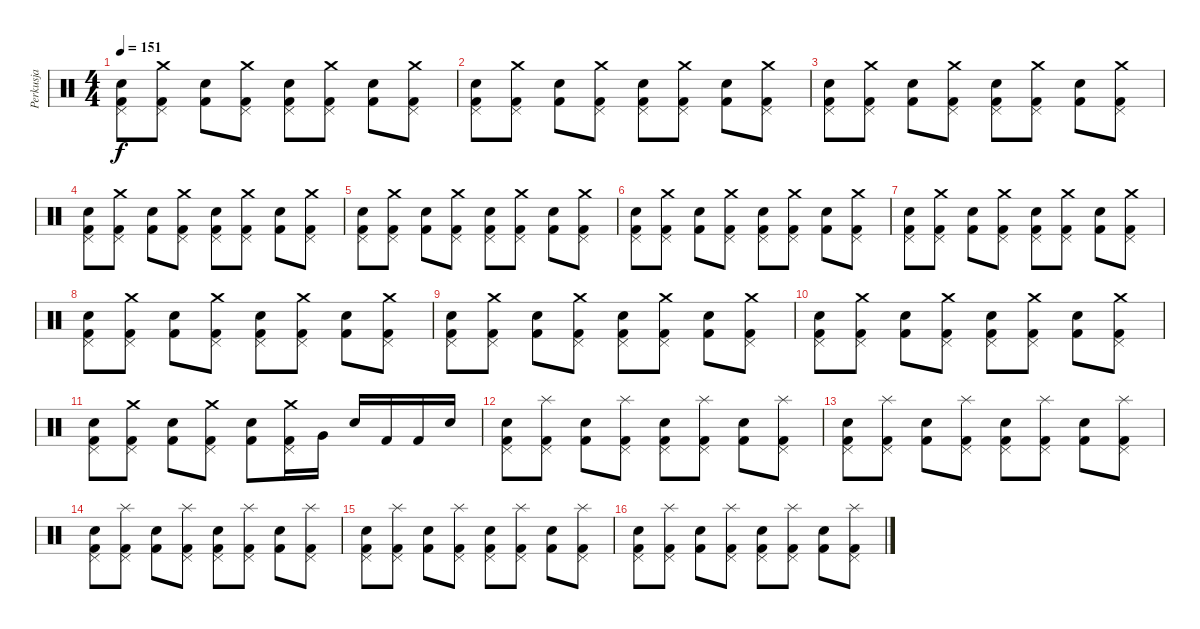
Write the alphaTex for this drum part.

\track ("Perkusja" "Perkusja") {instrument percussion}
\staff {score}
\articulation defaults
\ts (4 4)
\tempo 151
\clef neutral
\ks c
("Pedal Hi-Hat (hit)" "Kick (hit) 2" "Snare (hit) 2").8{dy f} ("Crash medium (hit)" "Kick (hit) 2" "Pedal Hi-Hat (hit)").8 ("Kick (hit) 2" "Snare (hit) 2").8 ("Crash medium (hit)" "Kick (hit) 2" "Pedal Hi-Hat (hit)").8 ("Pedal Hi-Hat (hit)" "Kick (hit) 2" "Snare (hit) 2").8 ("Crash medium (hit)" "Kick (hit) 2" "Pedal Hi-Hat (hit)").8 ("Kick (hit) 2" "Snare (hit) 2").8 ("Crash medium (hit)" "Kick (hit) 2" "Pedal Hi-Hat (hit)").8 |
("Pedal Hi-Hat (hit)" "Kick (hit) 2" "Snare (hit) 2").8 ("Crash medium (hit)" "Kick (hit) 2" "Pedal Hi-Hat (hit)").8 ("Kick (hit) 2" "Snare (hit) 2").8 ("Crash medium (hit)" "Kick (hit) 2" "Pedal Hi-Hat (hit)").8 ("Pedal Hi-Hat (hit)" "Kick (hit) 2" "Snare (hit) 2").8 ("Crash medium (hit)" "Kick (hit) 2" "Pedal Hi-Hat (hit)").8 ("Kick (hit) 2" "Snare (hit) 2").8 ("Crash medium (hit)" "Kick (hit) 2" "Pedal Hi-Hat (hit)").8 |
("Pedal Hi-Hat (hit)" "Kick (hit) 2" "Snare (hit) 2").8 ("Crash medium (hit)" "Kick (hit) 2" "Pedal Hi-Hat (hit)").8 ("Kick (hit) 2" "Snare (hit) 2").8 ("Crash medium (hit)" "Kick (hit) 2" "Pedal Hi-Hat (hit)").8 ("Pedal Hi-Hat (hit)" "Kick (hit) 2" "Snare (hit) 2").8 ("Crash medium (hit)" "Kick (hit) 2" "Pedal Hi-Hat (hit)").8 ("Kick (hit) 2" "Snare (hit) 2").8 ("Crash medium (hit)" "Kick (hit) 2" "Pedal Hi-Hat (hit)").8 |
("Pedal Hi-Hat (hit)" "Kick (hit) 2" "Snare (hit) 2").8 ("Crash medium (hit)" "Kick (hit) 2" "Pedal Hi-Hat (hit)").8 ("Kick (hit) 2" "Snare (hit) 2").8 ("Crash medium (hit)" "Kick (hit) 2" "Pedal Hi-Hat (hit)").8 ("Pedal Hi-Hat (hit)" "Kick (hit) 2" "Snare (hit) 2").8 ("Crash medium (hit)" "Kick (hit) 2" "Pedal Hi-Hat (hit)").8 ("Kick (hit) 2" "Snare (hit) 2").8 ("Crash medium (hit)" "Kick (hit) 2" "Pedal Hi-Hat (hit)").8 |
("Pedal Hi-Hat (hit)" "Kick (hit) 2" "Snare (hit) 2").8 ("Crash medium (hit)" "Kick (hit) 2" "Pedal Hi-Hat (hit)").8 ("Kick (hit) 2" "Snare (hit) 2").8 ("Crash medium (hit)" "Kick (hit) 2" "Pedal Hi-Hat (hit)").8 ("Pedal Hi-Hat (hit)" "Kick (hit) 2" "Snare (hit) 2").8 ("Crash medium (hit)" "Kick (hit) 2" "Pedal Hi-Hat (hit)").8 ("Kick (hit) 2" "Snare (hit) 2").8 ("Crash medium (hit)" "Kick (hit) 2" "Pedal Hi-Hat (hit)").8 |
("Pedal Hi-Hat (hit)" "Kick (hit) 2" "Snare (hit) 2").8 ("Crash medium (hit)" "Kick (hit) 2" "Pedal Hi-Hat (hit)").8 ("Kick (hit) 2" "Snare (hit) 2").8 ("Crash medium (hit)" "Kick (hit) 2" "Pedal Hi-Hat (hit)").8 ("Pedal Hi-Hat (hit)" "Kick (hit) 2" "Snare (hit) 2").8 ("Crash medium (hit)" "Kick (hit) 2" "Pedal Hi-Hat (hit)").8 ("Kick (hit) 2" "Snare (hit) 2").8 ("Crash medium (hit)" "Kick (hit) 2" "Pedal Hi-Hat (hit)").8 |
("Pedal Hi-Hat (hit)" "Kick (hit) 2" "Snare (hit) 2").8 ("Crash medium (hit)" "Kick (hit) 2" "Pedal Hi-Hat (hit)").8 ("Kick (hit) 2" "Snare (hit) 2").8 ("Crash medium (hit)" "Kick (hit) 2" "Pedal Hi-Hat (hit)").8 ("Pedal Hi-Hat (hit)" "Kick (hit) 2" "Snare (hit) 2").8 ("Crash medium (hit)" "Kick (hit) 2" "Pedal Hi-Hat (hit)").8 ("Kick (hit) 2" "Snare (hit) 2").8 ("Crash medium (hit)" "Kick (hit) 2" "Pedal Hi-Hat (hit)").8 |
("Pedal Hi-Hat (hit)" "Kick (hit) 2" "Snare (hit) 2").8 ("Crash medium (hit)" "Kick (hit) 2" "Pedal Hi-Hat (hit)").8 ("Kick (hit) 2" "Snare (hit) 2").8 ("Crash medium (hit)" "Kick (hit) 2" "Pedal Hi-Hat (hit)").8 ("Pedal Hi-Hat (hit)" "Kick (hit) 2" "Snare (hit) 2").8 ("Crash medium (hit)" "Kick (hit) 2" "Pedal Hi-Hat (hit)").8 ("Kick (hit) 2" "Snare (hit) 2").8 ("Crash medium (hit)" "Kick (hit) 2" "Pedal Hi-Hat (hit)").8 |
("Pedal Hi-Hat (hit)" "Kick (hit) 2" "Snare (hit) 2").8 ("Crash medium (hit)" "Kick (hit) 2" "Pedal Hi-Hat (hit)").8 ("Kick (hit) 2" "Snare (hit) 2").8 ("Crash medium (hit)" "Kick (hit) 2" "Pedal Hi-Hat (hit)").8 ("Pedal Hi-Hat (hit)" "Kick (hit) 2" "Snare (hit) 2").8 ("Crash medium (hit)" "Kick (hit) 2" "Pedal Hi-Hat (hit)").8 ("Kick (hit) 2" "Snare (hit) 2").8 ("Crash medium (hit)" "Kick (hit) 2" "Pedal Hi-Hat (hit)").8 |
("Pedal Hi-Hat (hit)" "Kick (hit) 2" "Snare (hit) 2").8 ("Crash medium (hit)" "Kick (hit) 2" "Pedal Hi-Hat (hit)").8 ("Kick (hit) 2" "Snare (hit) 2").8 ("Crash medium (hit)" "Kick (hit) 2" "Pedal Hi-Hat (hit)").8 ("Pedal Hi-Hat (hit)" "Kick (hit) 2" "Snare (hit) 2").8 ("Crash medium (hit)" "Kick (hit) 2" "Pedal Hi-Hat (hit)").8 ("Kick (hit) 2" "Snare (hit) 2").8 ("Crash medium (hit)" "Kick (hit) 2" "Pedal Hi-Hat (hit)").8 |
("Pedal Hi-Hat (hit)" "Kick (hit) 2" "Snare (hit) 2").8 ("Crash medium (hit)" "Kick (hit) 2" "Pedal Hi-Hat (hit)").8 ("Kick (hit) 2" "Snare (hit) 2").8 ("Crash medium (hit)" "Kick (hit) 2" "Pedal Hi-Hat (hit)").8 ("Kick (hit) 2" "Snare (hit) 2").8 ("Crash medium (hit)" "Kick (hit) 2" "Pedal Hi-Hat (hit)").16 "Very Low Tom (hit)".16 "Snare (hit) 2".16 "Kick (hit) 2".16 "Kick (hit) 2".16 "Snare (hit) 2".16 |
("Pedal Hi-Hat (hit)" "Kick (hit) 2" "Snare (hit) 2").8 ("Splash (hit)" "Kick (hit) 2" "Pedal Hi-Hat (hit)").8 ("Kick (hit) 2" "Snare (hit) 2").8 ("Splash (hit)" "Kick (hit) 2" "Pedal Hi-Hat (hit)").8 ("Pedal Hi-Hat (hit)" "Kick (hit) 2" "Snare (hit) 2").8 ("Splash (hit)" "Kick (hit) 2" "Pedal Hi-Hat (hit)").8 ("Kick (hit) 2" "Snare (hit) 2").8 ("Splash (hit)" "Kick (hit) 2" "Pedal Hi-Hat (hit)").8 |
("Pedal Hi-Hat (hit)" "Kick (hit) 2" "Snare (hit) 2").8 ("Splash (hit)" "Kick (hit) 2" "Pedal Hi-Hat (hit)").8 ("Kick (hit) 2" "Snare (hit) 2").8 ("Splash (hit)" "Kick (hit) 2" "Pedal Hi-Hat (hit)").8 ("Pedal Hi-Hat (hit)" "Kick (hit) 2" "Snare (hit) 2").8 ("Splash (hit)" "Kick (hit) 2" "Pedal Hi-Hat (hit)").8 ("Kick (hit) 2" "Snare (hit) 2").8 ("Splash (hit)" "Kick (hit) 2" "Pedal Hi-Hat (hit)").8 |
("Pedal Hi-Hat (hit)" "Kick (hit) 2" "Snare (hit) 2").8 ("Splash (hit)" "Kick (hit) 2" "Pedal Hi-Hat (hit)").8 ("Kick (hit) 2" "Snare (hit) 2").8 ("Splash (hit)" "Kick (hit) 2" "Pedal Hi-Hat (hit)").8 ("Pedal Hi-Hat (hit)" "Kick (hit) 2" "Snare (hit) 2").8 ("Splash (hit)" "Kick (hit) 2" "Pedal Hi-Hat (hit)").8 ("Kick (hit) 2" "Snare (hit) 2").8 ("Splash (hit)" "Kick (hit) 2" "Pedal Hi-Hat (hit)").8 |
("Pedal Hi-Hat (hit)" "Kick (hit) 2" "Snare (hit) 2").8 ("Splash (hit)" "Kick (hit) 2" "Pedal Hi-Hat (hit)").8 ("Kick (hit) 2" "Snare (hit) 2").8 ("Splash (hit)" "Kick (hit) 2" "Pedal Hi-Hat (hit)").8 ("Pedal Hi-Hat (hit)" "Kick (hit) 2" "Snare (hit) 2").8 ("Splash (hit)" "Kick (hit) 2" "Pedal Hi-Hat (hit)").8 ("Kick (hit) 2" "Snare (hit) 2").8 ("Splash (hit)" "Kick (hit) 2" "Pedal Hi-Hat (hit)").8 |
("Pedal Hi-Hat (hit)" "Kick (hit) 2" "Snare (hit) 2").8 ("Splash (hit)" "Kick (hit) 2" "Pedal Hi-Hat (hit)").8 ("Kick (hit) 2" "Snare (hit) 2").8 ("Splash (hit)" "Kick (hit) 2" "Pedal Hi-Hat (hit)").8 ("Pedal Hi-Hat (hit)" "Kick (hit) 2" "Snare (hit) 2").8 ("Splash (hit)" "Kick (hit) 2" "Pedal Hi-Hat (hit)").8 ("Kick (hit) 2" "Snare (hit) 2").8 ("Splash (hit)" "Kick (hit) 2" "Pedal Hi-Hat (hit)").8
